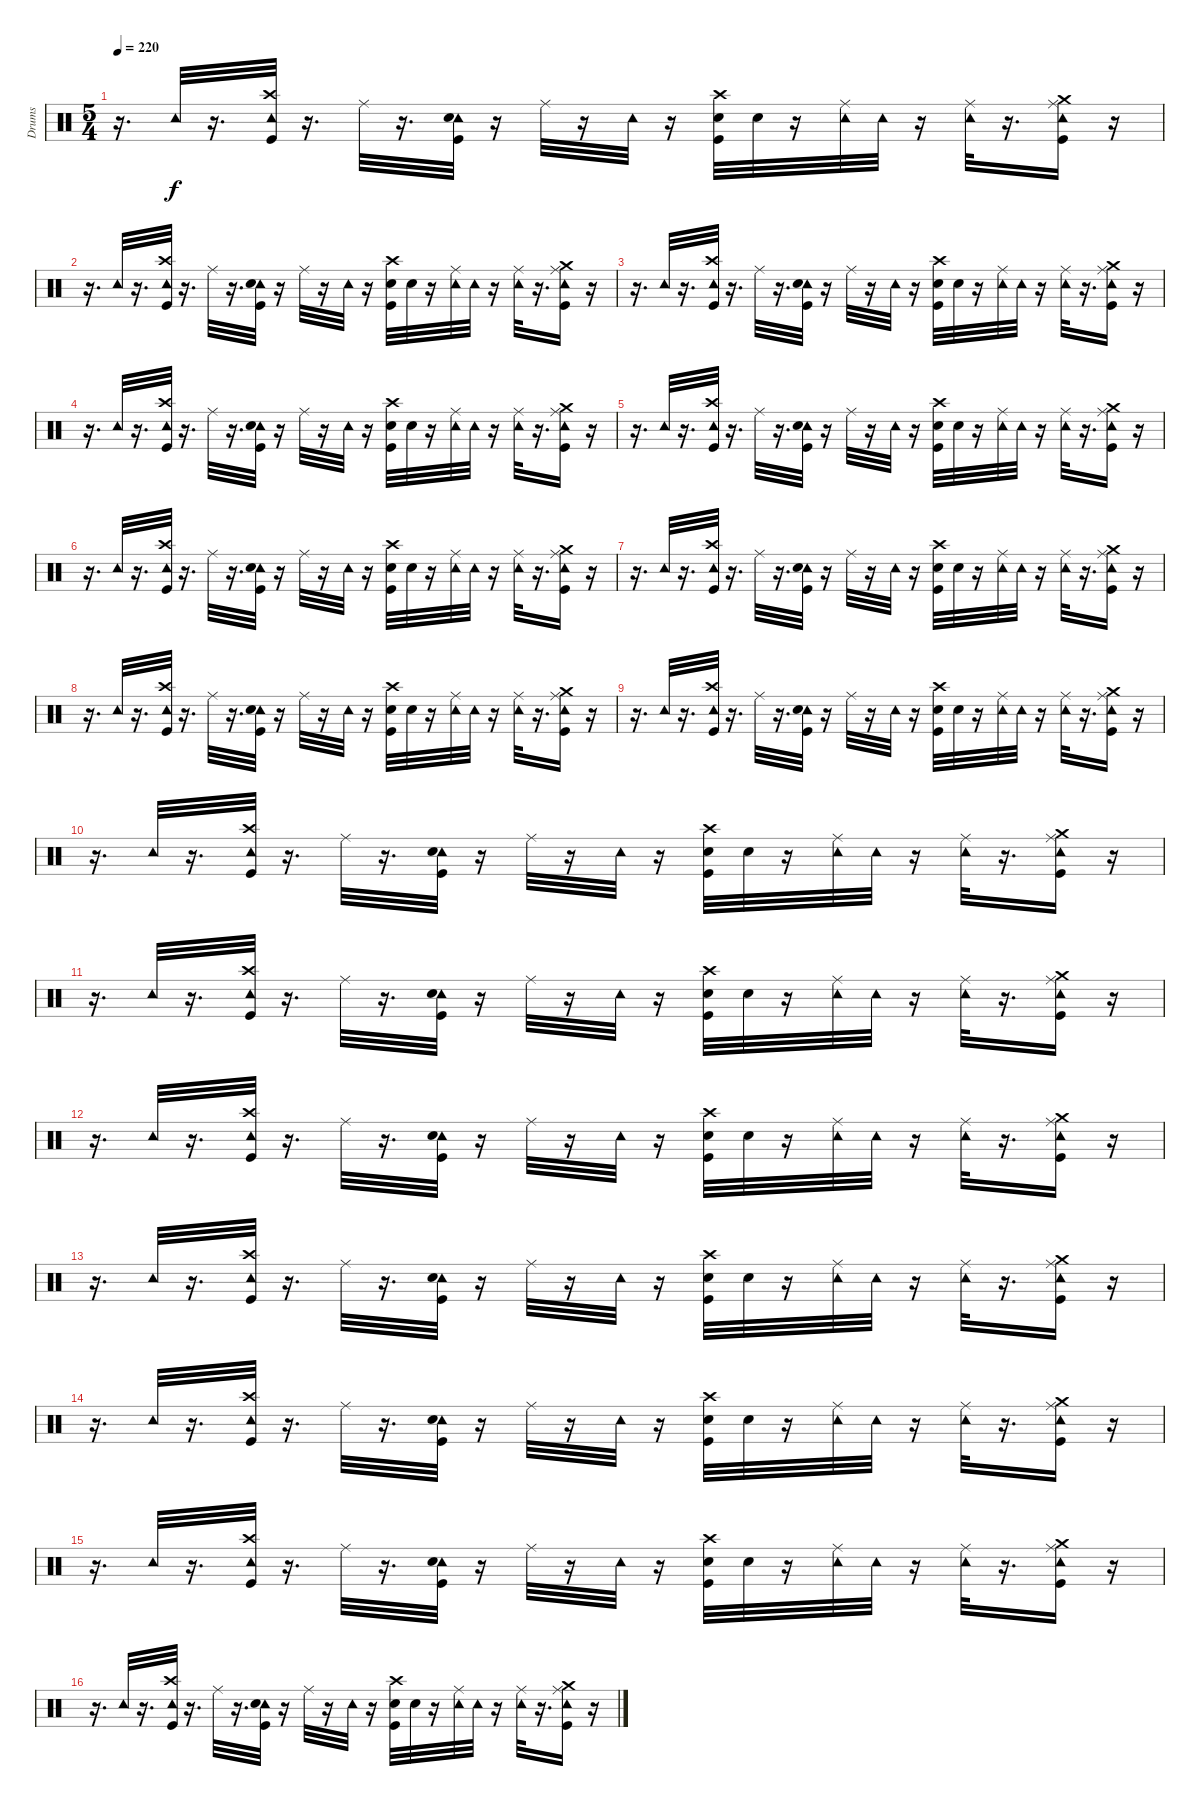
\track ("Drums" "Drums") {instrument percussion}
\staff {score}
\articulation defaults
\ts (5 4)
\tempo 220
\clef neutral
\ks c
r.16{d dy f} "Tambourine (hit)".32 r.16{d} ("Tambourine (hit)" "Crash high (hit)" "Kick (hit)").32 r.16{d} "Ride (middle)".32 r.16{d} ("Tambourine (hit)" "Snare (hit) 2" "Kick (hit)").32 r.16 "Ride (middle)".32 r.16 "Tambourine (hit)".32 r.16 ("Crash high (hit)" "Kick (hit)" "Snare (hit) 2").32 "Snare (hit)".32 r.16 ("Tambourine (hit)" "Ride (middle)").32 "Tambourine (hit)".32 r.16 ("Ride (middle)" "Tambourine (hit)").32 r.16{d} ("Crash medium (hit)" "Tambourine (hit)" "Ride (middle)" "Kick (hit)").16 r.16 |
r.16{d} "Tambourine (hit)".32 r.16{d} ("Tambourine (hit)" "Crash high (hit)" "Kick (hit)").32 r.16{d} "Ride (middle)".32 r.16{d} ("Tambourine (hit)" "Snare (hit) 2" "Kick (hit)").32 r.16 "Ride (middle)".32 r.16 "Tambourine (hit)".32 r.16 ("Crash high (hit)" "Kick (hit)" "Snare (hit) 2").32 "Snare (hit)".32 r.16 ("Tambourine (hit)" "Ride (middle)").32 "Tambourine (hit)".32 r.16 ("Ride (middle)" "Tambourine (hit)").32 r.16{d} ("Crash medium (hit)" "Tambourine (hit)" "Ride (middle)" "Kick (hit)").16 r.16 |
r.16{d} "Tambourine (hit)".32 r.16{d} ("Tambourine (hit)" "Crash high (hit)" "Kick (hit)").32 r.16{d} "Ride (middle)".32 r.16{d} ("Tambourine (hit)" "Snare (hit) 2" "Kick (hit)").32 r.16 "Ride (middle)".32 r.16 "Tambourine (hit)".32 r.16 ("Crash high (hit)" "Kick (hit)" "Snare (hit) 2").32 "Snare (hit)".32 r.16 ("Tambourine (hit)" "Ride (middle)").32 "Tambourine (hit)".32 r.16 ("Ride (middle)" "Tambourine (hit)").32 r.16{d} ("Crash medium (hit)" "Tambourine (hit)" "Ride (middle)" "Kick (hit)").16 r.16 |
r.16{d} "Tambourine (hit)".32 r.16{d} ("Tambourine (hit)" "Crash high (hit)" "Kick (hit)").32 r.16{d} "Ride (middle)".32 r.16{d} ("Tambourine (hit)" "Snare (hit) 2" "Kick (hit)").32 r.16 "Ride (middle)".32 r.16 "Tambourine (hit)".32 r.16 ("Crash high (hit)" "Kick (hit)" "Snare (hit) 2").32 "Snare (hit)".32 r.16 ("Tambourine (hit)" "Ride (middle)").32 "Tambourine (hit)".32 r.16 ("Ride (middle)" "Tambourine (hit)").32 r.16{d} ("Crash medium (hit)" "Tambourine (hit)" "Ride (middle)" "Kick (hit)").16 r.16 |
r.16{d} "Tambourine (hit)".32 r.16{d} ("Tambourine (hit)" "Crash high (hit)" "Kick (hit)").32 r.16{d} "Ride (middle)".32 r.16{d} ("Tambourine (hit)" "Snare (hit) 2" "Kick (hit)").32 r.16 "Ride (middle)".32 r.16 "Tambourine (hit)".32 r.16 ("Crash high (hit)" "Kick (hit)" "Snare (hit) 2").32 "Snare (hit)".32 r.16 ("Tambourine (hit)" "Ride (middle)").32 "Tambourine (hit)".32 r.16 ("Ride (middle)" "Tambourine (hit)").32 r.16{d} ("Crash medium (hit)" "Tambourine (hit)" "Ride (middle)" "Kick (hit)").16 r.16 |
r.16{d} "Tambourine (hit)".32 r.16{d} ("Tambourine (hit)" "Crash high (hit)" "Kick (hit)").32 r.16{d} "Ride (middle)".32 r.16{d} ("Tambourine (hit)" "Snare (hit) 2" "Kick (hit)").32 r.16 "Ride (middle)".32 r.16 "Tambourine (hit)".32 r.16 ("Crash high (hit)" "Kick (hit)" "Snare (hit) 2").32 "Snare (hit)".32 r.16 ("Tambourine (hit)" "Ride (middle)").32 "Tambourine (hit)".32 r.16 ("Ride (middle)" "Tambourine (hit)").32 r.16{d} ("Crash medium (hit)" "Tambourine (hit)" "Ride (middle)" "Kick (hit)").16 r.16 |
r.16{d} "Tambourine (hit)".32 r.16{d} ("Tambourine (hit)" "Crash high (hit)" "Kick (hit)").32 r.16{d} "Ride (middle)".32 r.16{d} ("Tambourine (hit)" "Snare (hit) 2" "Kick (hit)").32 r.16 "Ride (middle)".32 r.16 "Tambourine (hit)".32 r.16 ("Crash high (hit)" "Kick (hit)" "Snare (hit) 2").32 "Snare (hit)".32 r.16 ("Tambourine (hit)" "Ride (middle)").32 "Tambourine (hit)".32 r.16 ("Ride (middle)" "Tambourine (hit)").32 r.16{d} ("Crash medium (hit)" "Tambourine (hit)" "Ride (middle)" "Kick (hit)").16 r.16 |
r.16{d} "Tambourine (hit)".32 r.16{d} ("Tambourine (hit)" "Crash high (hit)" "Kick (hit)").32 r.16{d} "Ride (middle)".32 r.16{d} ("Tambourine (hit)" "Snare (hit) 2" "Kick (hit)").32 r.16 "Ride (middle)".32 r.16 "Tambourine (hit)".32 r.16 ("Crash high (hit)" "Kick (hit)" "Snare (hit) 2").32 "Snare (hit)".32 r.16 ("Tambourine (hit)" "Ride (middle)").32 "Tambourine (hit)".32 r.16 ("Ride (middle)" "Tambourine (hit)").32 r.16{d} ("Crash medium (hit)" "Tambourine (hit)" "Ride (middle)" "Kick (hit)").16 r.16 |
r.16{d} "Tambourine (hit)".32 r.16{d} ("Tambourine (hit)" "Crash high (hit)" "Kick (hit)").32 r.16{d} "Ride (middle)".32 r.16{d} ("Tambourine (hit)" "Snare (hit) 2" "Kick (hit)").32 r.16 "Ride (middle)".32 r.16 "Tambourine (hit)".32 r.16 ("Crash high (hit)" "Kick (hit)" "Snare (hit) 2").32 "Snare (hit)".32 r.16 ("Tambourine (hit)" "Ride (middle)").32 "Tambourine (hit)".32 r.16 ("Ride (middle)" "Tambourine (hit)").32 r.16{d} ("Crash medium (hit)" "Tambourine (hit)" "Ride (middle)" "Kick (hit)").16 r.16 |
r.16{d} "Tambourine (hit)".32 r.16{d} ("Tambourine (hit)" "Crash high (hit)" "Kick (hit)").32 r.16{d} "Ride (middle)".32 r.16{d} ("Tambourine (hit)" "Snare (hit) 2" "Kick (hit)").32 r.16 "Ride (middle)".32 r.16 "Tambourine (hit)".32 r.16 ("Crash high (hit)" "Kick (hit)" "Snare (hit) 2").32 "Snare (hit)".32 r.16 ("Tambourine (hit)" "Ride (middle)").32 "Tambourine (hit)".32 r.16 ("Ride (middle)" "Tambourine (hit)").32 r.16{d} ("Crash medium (hit)" "Tambourine (hit)" "Ride (middle)" "Kick (hit)").16 r.16 |
r.16{d} "Tambourine (hit)".32 r.16{d} ("Tambourine (hit)" "Crash high (hit)" "Kick (hit)").32 r.16{d} "Ride (middle)".32 r.16{d} ("Tambourine (hit)" "Snare (hit) 2" "Kick (hit)").32 r.16 "Ride (middle)".32 r.16 "Tambourine (hit)".32 r.16 ("Crash high (hit)" "Kick (hit)" "Snare (hit) 2").32 "Snare (hit)".32 r.16 ("Tambourine (hit)" "Ride (middle)").32 "Tambourine (hit)".32 r.16 ("Ride (middle)" "Tambourine (hit)").32 r.16{d} ("Crash medium (hit)" "Tambourine (hit)" "Ride (middle)" "Kick (hit)").16 r.16 |
r.16{d} "Tambourine (hit)".32 r.16{d} ("Tambourine (hit)" "Crash high (hit)" "Kick (hit)").32 r.16{d} "Ride (middle)".32 r.16{d} ("Tambourine (hit)" "Snare (hit) 2" "Kick (hit)").32 r.16 "Ride (middle)".32 r.16 "Tambourine (hit)".32 r.16 ("Crash high (hit)" "Kick (hit)" "Snare (hit) 2").32 "Snare (hit)".32 r.16 ("Tambourine (hit)" "Ride (middle)").32 "Tambourine (hit)".32 r.16 ("Ride (middle)" "Tambourine (hit)").32 r.16{d} ("Crash medium (hit)" "Tambourine (hit)" "Ride (middle)" "Kick (hit)").16 r.16 |
r.16{d} "Tambourine (hit)".32 r.16{d} ("Tambourine (hit)" "Crash high (hit)" "Kick (hit)").32 r.16{d} "Ride (middle)".32 r.16{d} ("Tambourine (hit)" "Snare (hit) 2" "Kick (hit)").32 r.16 "Ride (middle)".32 r.16 "Tambourine (hit)".32 r.16 ("Crash high (hit)" "Kick (hit)" "Snare (hit) 2").32 "Snare (hit)".32 r.16 ("Tambourine (hit)" "Ride (middle)").32 "Tambourine (hit)".32 r.16 ("Ride (middle)" "Tambourine (hit)").32 r.16{d} ("Crash medium (hit)" "Tambourine (hit)" "Ride (middle)" "Kick (hit)").16 r.16 |
r.16{d} "Tambourine (hit)".32 r.16{d} ("Tambourine (hit)" "Crash high (hit)" "Kick (hit)").32 r.16{d} "Ride (middle)".32 r.16{d} ("Tambourine (hit)" "Snare (hit) 2" "Kick (hit)").32 r.16 "Ride (middle)".32 r.16 "Tambourine (hit)".32 r.16 ("Crash high (hit)" "Kick (hit)" "Snare (hit) 2").32 "Snare (hit)".32 r.16 ("Tambourine (hit)" "Ride (middle)").32 "Tambourine (hit)".32 r.16 ("Ride (middle)" "Tambourine (hit)").32 r.16{d} ("Crash medium (hit)" "Tambourine (hit)" "Ride (middle)" "Kick (hit)").16 r.16 |
r.16{d} "Tambourine (hit)".32 r.16{d} ("Tambourine (hit)" "Crash high (hit)" "Kick (hit)").32 r.16{d} "Ride (middle)".32 r.16{d} ("Tambourine (hit)" "Snare (hit) 2" "Kick (hit)").32 r.16 "Ride (middle)".32 r.16 "Tambourine (hit)".32 r.16 ("Crash high (hit)" "Kick (hit)" "Snare (hit) 2").32 "Snare (hit)".32 r.16 ("Tambourine (hit)" "Ride (middle)").32 "Tambourine (hit)".32 r.16 ("Ride (middle)" "Tambourine (hit)").32 r.16{d} ("Crash medium (hit)" "Tambourine (hit)" "Ride (middle)" "Kick (hit)").16 r.16 |
r.16{d} "Tambourine (hit)".32 r.16{d} ("Tambourine (hit)" "Crash high (hit)" "Kick (hit)").32 r.16{d} "Ride (middle)".32 r.16{d} ("Tambourine (hit)" "Snare (hit) 2" "Kick (hit)").32 r.16 "Ride (middle)".32 r.16 "Tambourine (hit)".32 r.16 ("Crash high (hit)" "Kick (hit)" "Snare (hit) 2").32 "Snare (hit)".32 r.16 ("Tambourine (hit)" "Ride (middle)").32 "Tambourine (hit)".32 r.16 ("Ride (middle)" "Tambourine (hit)").32 r.16{d} ("Crash medium (hit)" "Tambourine (hit)" "Ride (middle)" "Kick (hit)").16 r.16
